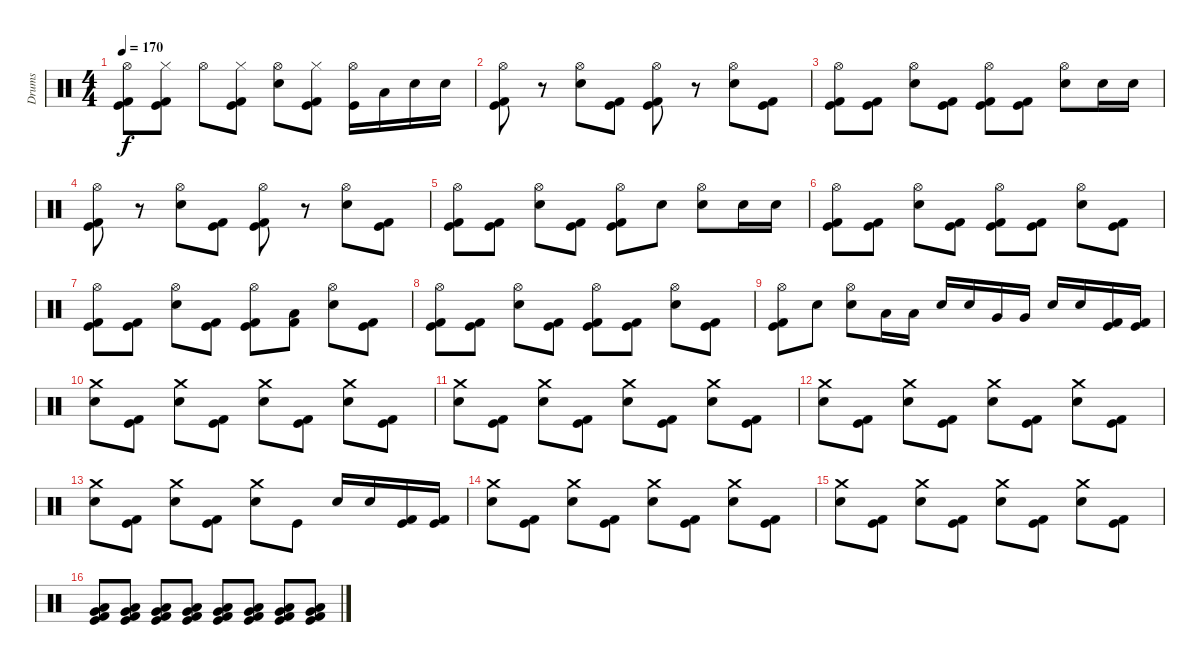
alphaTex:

\track ("Drums" "Drums") {instrument percussion}
\staff {score}
\articulation defaults
\ts (4 4)
\tempo 170
\clef neutral
\ks c
("Kick (hit) 2" "Kick (hit)" "Hi-Hat (open)").8{dy f} ("Kick (hit) 2" "Kick (hit)" "Hi-Hat (closed)").8 "Hi-Hat (open)".8 ("Kick (hit) 2" "Kick (hit)" "Hi-Hat (closed)").8 ("Snare (hit) 2" "Hi-Hat (open)").8 ("Kick (hit) 2" "Kick (hit)" "Hi-Hat (closed)").8 ("Hi-Hat (open)" "Kick (hit)").16 "Low Tom (hit)".16 "Snare (hit) 2".16 "Snare (hit) 2".16 |
("Kick (hit) 2" "Kick (hit)" "Hi-Hat (open)").8 r.8 ("Snare (hit) 2" "Hi-Hat (open)").8 ("Kick (hit) 2" "Kick (hit)").8 ("Kick (hit) 2" "Kick (hit)" "Hi-Hat (open)").8 r.8 ("Snare (hit) 2" "Hi-Hat (open)").8 ("Kick (hit) 2" "Kick (hit)").8 |
("Kick (hit) 2" "Kick (hit)" "Hi-Hat (open)").8 ("Kick (hit) 2" "Kick (hit)").8 ("Snare (hit) 2" "Hi-Hat (open)").8 ("Kick (hit) 2" "Kick (hit)").8 ("Kick (hit) 2" "Kick (hit)" "Hi-Hat (open)").8 ("Kick (hit) 2" "Kick (hit)").8 ("Snare (hit) 2" "Hi-Hat (open)").8 "Snare (hit) 2".16 "Snare (hit) 2".16 |
("Kick (hit) 2" "Kick (hit)" "Hi-Hat (open)").8 r.8 ("Snare (hit) 2" "Hi-Hat (open)").8 ("Kick (hit) 2" "Kick (hit)").8 ("Kick (hit) 2" "Kick (hit)" "Hi-Hat (open)").8 r.8 ("Snare (hit) 2" "Hi-Hat (open)").8 ("Kick (hit) 2" "Kick (hit)").8 |
("Kick (hit) 2" "Kick (hit)" "Hi-Hat (open)").8 ("Kick (hit) 2" "Kick (hit)").8 ("Snare (hit) 2" "Hi-Hat (open)").8 ("Kick (hit) 2" "Kick (hit)").8 ("Kick (hit) 2" "Kick (hit)" "Hi-Hat (open)").8 "Snare (hit) 2".8 ("Snare (hit) 2" "Hi-Hat (open)").8 "Snare (hit) 2".16 "Snare (hit) 2".16 |
("Kick (hit) 2" "Kick (hit)" "Hi-Hat (open)").8 ("Kick (hit) 2" "Kick (hit)").8 ("Snare (hit) 2" "Hi-Hat (open)").8 ("Kick (hit) 2" "Kick (hit)").8 ("Kick (hit) 2" "Kick (hit)" "Hi-Hat (open)").8 ("Kick (hit) 2" "Kick (hit)").8 ("Snare (hit) 2" "Hi-Hat (open)").8 ("Kick (hit) 2" "Kick (hit)").8 |
("Kick (hit) 2" "Kick (hit)" "Hi-Hat (open)").8 ("Kick (hit) 2" "Kick (hit)").8 ("Snare (hit) 2" "Hi-Hat (open)").8 ("Kick (hit) 2" "Kick (hit)").8 ("Kick (hit) 2" "Kick (hit)" "Hi-Hat (open)").8 ("Kick (hit) 2" "Low Tom (hit)").8 ("Snare (hit) 2" "Hi-Hat (open)").8 ("Kick (hit) 2" "Kick (hit)").8 |
("Kick (hit) 2" "Kick (hit)" "Hi-Hat (open)").8 ("Kick (hit) 2" "Kick (hit)").8 ("Snare (hit) 2" "Hi-Hat (open)").8 ("Kick (hit) 2" "Kick (hit)").8 ("Kick (hit) 2" "Kick (hit)" "Hi-Hat (open)").8 ("Kick (hit) 2" "Kick (hit)").8 ("Snare (hit) 2" "Hi-Hat (open)").8 ("Kick (hit) 2" "Kick (hit)").8 |
("Kick (hit) 2" "Kick (hit)" "Hi-Hat (open)").8 "Snare (hit) 2".8 ("Hi-Hat (open)" "Snare (hit) 2").8 "Low Tom (hit)".16 "Low Tom (hit)".16 "Snare (hit) 2".16 "Snare (hit) 2".16 "Very Low Tom (hit)".16 "Very Low Tom (hit)".16 "Snare (hit) 2".16 "Snare (hit) 2".16 ("Kick (hit) 2" "Kick (hit)").16 ("Kick (hit) 2" "Kick (hit)").16 |
("Snare (hit) 2" "Crash medium (hit)").8 ("Kick (hit) 2" "Kick (hit)").8 ("Snare (hit) 2" "Crash medium (hit)").8 ("Kick (hit) 2" "Kick (hit)").8 ("Snare (hit) 2" "Crash medium (hit)").8 ("Kick (hit) 2" "Kick (hit)").8 ("Snare (hit) 2" "Crash medium (hit)").8 ("Kick (hit) 2" "Kick (hit)").8 |
("Snare (hit) 2" "Crash medium (hit)").8 ("Kick (hit) 2" "Kick (hit)").8 ("Snare (hit) 2" "Crash medium (hit)").8 ("Kick (hit) 2" "Kick (hit)").8 ("Snare (hit) 2" "Crash medium (hit)").8 ("Kick (hit) 2" "Kick (hit)").8 ("Snare (hit) 2" "Crash medium (hit)").8 ("Kick (hit) 2" "Kick (hit)").8 |
("Snare (hit) 2" "Crash medium (hit)").8 ("Kick (hit) 2" "Kick (hit)").8 ("Snare (hit) 2" "Crash medium (hit)").8 ("Kick (hit) 2" "Kick (hit)").8 ("Snare (hit) 2" "Crash medium (hit)").8 ("Kick (hit) 2" "Kick (hit)").8 ("Snare (hit) 2" "Crash medium (hit)").8 ("Kick (hit) 2" "Kick (hit)").8 |
("Snare (hit) 2" "Crash medium (hit)").8 ("Kick (hit) 2" "Kick (hit)").8 ("Snare (hit) 2" "Crash medium (hit)").8 ("Kick (hit) 2" "Kick (hit)").8 ("Snare (hit) 2" "Crash medium (hit)").8 "Kick (hit)".8 "Snare (hit) 2".16 "Snare (hit) 2".16 ("Kick (hit) 2" "Kick (hit)").16 ("Kick (hit) 2" "Kick (hit)").16 |
("Snare (hit) 2" "Crash medium (hit)").8 ("Kick (hit) 2" "Kick (hit)").8 ("Snare (hit) 2" "Crash medium (hit)").8 ("Kick (hit) 2" "Kick (hit)").8 ("Snare (hit) 2" "Crash medium (hit)").8 ("Kick (hit) 2" "Kick (hit)").8 ("Snare (hit) 2" "Crash medium (hit)").8 ("Kick (hit) 2" "Kick (hit)").8 |
("Snare (hit) 2" "Crash medium (hit)").8 ("Kick (hit) 2" "Kick (hit)").8 ("Snare (hit) 2" "Crash medium (hit)").8 ("Kick (hit) 2" "Kick (hit)").8 ("Snare (hit) 2" "Crash medium (hit)").8 ("Kick (hit) 2" "Kick (hit)").8 ("Snare (hit) 2" "Crash medium (hit)").8 ("Kick (hit) 2" "Kick (hit)").8 |
("Kick (hit) 2" "Very Low Tom (hit)" "Kick (hit)" "Low Tom (hit)").8 ("Kick (hit) 2" "Very Low Tom (hit)" "Kick (hit)" "Low Tom (hit)").8 ("Kick (hit) 2" "Very Low Tom (hit)" "Kick (hit)" "Low Tom (hit)").8 ("Kick (hit) 2" "Very Low Tom (hit)" "Kick (hit)" "Low Tom (hit)").8 ("Kick (hit) 2" "Very Low Tom (hit)" "Kick (hit)" "Low Tom (hit)").8 ("Kick (hit) 2" "Very Low Tom (hit)" "Kick (hit)" "Low Tom (hit)").8 ("Kick (hit) 2" "Very Low Tom (hit)" "Kick (hit)" "Low Tom (hit)").8 ("Kick (hit) 2" "Very Low Tom (hit)" "Kick (hit)" "Low Tom (hit)").8
